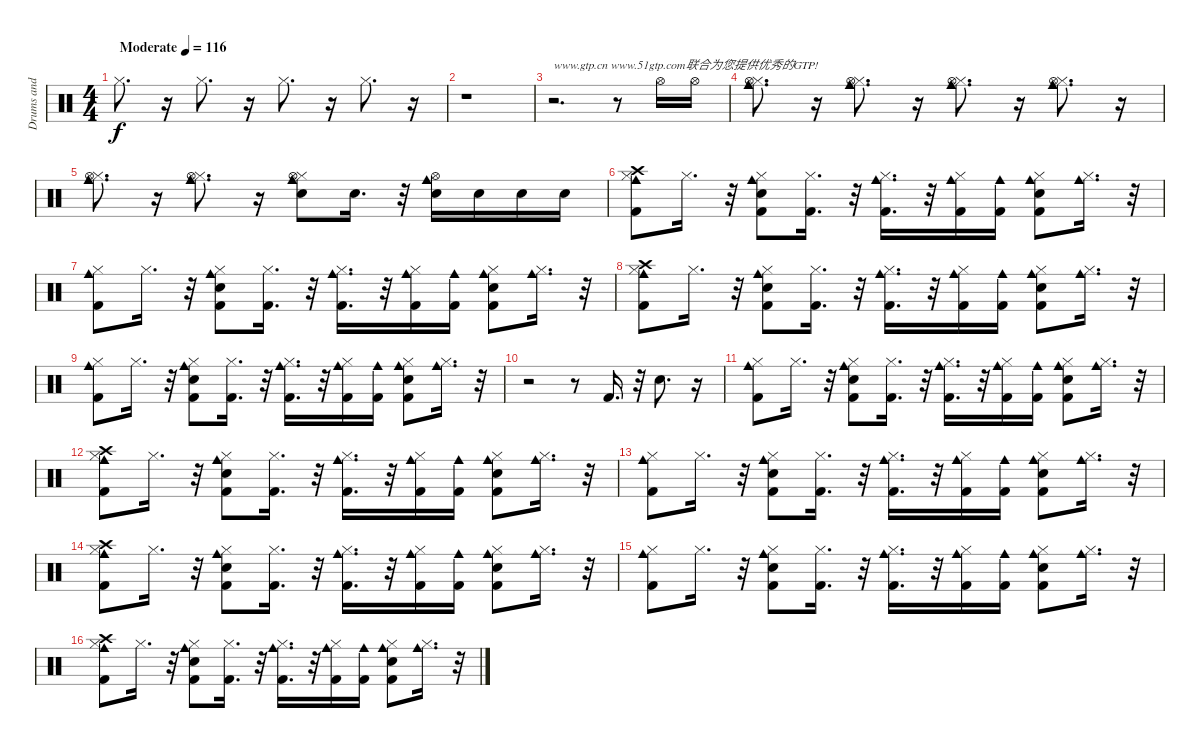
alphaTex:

\track ("Drums and Cowbell" "Drums and ") {instrument percussion}
\staff {score}
\articulation defaults
\ts (4 4)
\tempo (116 "Moderate")
\clef neutral
\ks c "Hi-Hat (closed)".8{d dy f}
r.16 "Hi-Hat (closed)".8{d} r.16 "Hi-Hat (closed)".8{d} r.16 "Hi-Hat (closed)".8{d} r.16 |
r.1 |
r.2{d txt "www.gtp.cn www.51gtp.com联合为您提供优秀的GTP!"} r.8 "Hi-Hat (open)".16 "Hi-Hat (open)".16 |
("Hi-Hat (closed)" "Cowbell medium (hit)" "Hi-Hat (open)").8{d} r.16 ("Hi-Hat (closed)" "Cowbell medium (hit)" "Hi-Hat (open)").8{d} r.16 ("Hi-Hat (closed)" "Cowbell medium (hit)" "Hi-Hat (open)").8{d} r.16 ("Hi-Hat (closed)" "Cowbell medium (hit)" "Hi-Hat (open)").8{d} r.16 |
("Hi-Hat (closed)" "Cowbell medium (hit)" "Hi-Hat (open)").8{d} r.16 ("Hi-Hat (closed)" "Cowbell medium (hit)" "Hi-Hat (open)").8{d} r.16 ("Hi-Hat (closed)" "Electric Snare (hit)" "Cowbell medium (hit)" "Hi-Hat (open)").8 "Electric Snare (hit)".16{d} r.32 ("Electric Snare (hit)" "Cowbell medium (hit)" "Hi-Hat (open)").16 "Electric Snare (hit)".16 "Electric Snare (hit)".16 "Electric Snare (hit)".16 |
("Kick (hit) 2" "Hi-Hat (closed)" "Crash high (hit)" "Cowbell medium (hit)").8 "Hi-Hat (closed)".16{d} r.32 ("Snare (hit) 2" "Kick (hit) 2" "Hi-Hat (closed)" "Cowbell medium (hit)").8 ("Kick (hit) 2" "Hi-Hat (closed)").16{d} r.32 ("Hi-Hat (closed)" "Kick (hit) 2" "Cowbell medium (hit)").16{d} r.32 ("Kick (hit) 2" "Hi-Hat (closed)" "Cowbell medium (hit)").16 ("Kick (hit) 2" "Cowbell medium (hit)").16 ("Kick (hit) 2" "Snare (hit) 2" "Hi-Hat (closed)" "Cowbell medium (hit)").8 ("Hi-Hat (closed)" "Cowbell medium (hit)").16{d} r.32 |
("Kick (hit) 2" "Hi-Hat (closed)" "Cowbell medium (hit)").8 "Hi-Hat (closed)".16{d} r.32 ("Snare (hit) 2" "Kick (hit) 2" "Hi-Hat (closed)" "Cowbell medium (hit)").8 ("Kick (hit) 2" "Hi-Hat (closed)").16{d} r.32 ("Hi-Hat (closed)" "Kick (hit) 2" "Cowbell medium (hit)").16{d} r.32 ("Kick (hit) 2" "Hi-Hat (closed)" "Cowbell medium (hit)").16 ("Kick (hit) 2" "Cowbell medium (hit)").16 ("Kick (hit) 2" "Snare (hit) 2" "Hi-Hat (closed)" "Cowbell medium (hit)").8 ("Hi-Hat (closed)" "Cowbell medium (hit)").16{d} r.32 |
("Kick (hit) 2" "Hi-Hat (closed)" "Cowbell medium (hit)" "Crash high (hit)").8 "Hi-Hat (closed)".16{d} r.32 ("Snare (hit) 2" "Kick (hit) 2" "Hi-Hat (closed)" "Cowbell medium (hit)").8 ("Kick (hit) 2" "Hi-Hat (closed)").16{d} r.32 ("Hi-Hat (closed)" "Kick (hit) 2" "Cowbell medium (hit)").16{d} r.32 ("Kick (hit) 2" "Hi-Hat (closed)" "Cowbell medium (hit)").16 ("Kick (hit) 2" "Cowbell medium (hit)").16 ("Kick (hit) 2" "Snare (hit) 2" "Hi-Hat (closed)" "Cowbell medium (hit)").8 ("Hi-Hat (closed)" "Cowbell medium (hit)").16{d} r.32 |
("Kick (hit) 2" "Hi-Hat (closed)" "Cowbell medium (hit)").8 "Hi-Hat (closed)".16{d} r.32 ("Snare (hit) 2" "Kick (hit) 2" "Hi-Hat (closed)" "Cowbell medium (hit)").8 ("Kick (hit) 2" "Hi-Hat (closed)").16{d} r.32 ("Hi-Hat (closed)" "Kick (hit) 2" "Cowbell medium (hit)").16{d} r.32 ("Kick (hit) 2" "Hi-Hat (closed)" "Cowbell medium (hit)").16 ("Kick (hit) 2" "Cowbell medium (hit)").16 ("Kick (hit) 2" "Snare (hit) 2" "Hi-Hat (closed)" "Cowbell medium (hit)").8 ("Hi-Hat (closed)" "Cowbell medium (hit)").16{d} r.32 |
r.2 r.8 "Kick (hit) 2".16{d} r.32 "Electric Snare (hit)".8{d} r.16 |
("Kick (hit) 2" "Hi-Hat (closed)" "Cowbell medium (hit)").8 "Hi-Hat (closed)".16{d} r.32 ("Snare (hit) 2" "Kick (hit) 2" "Hi-Hat (closed)" "Cowbell medium (hit)").8 ("Kick (hit) 2" "Hi-Hat (closed)").16{d} r.32 ("Hi-Hat (closed)" "Kick (hit) 2" "Cowbell medium (hit)").16{d} r.32 ("Kick (hit) 2" "Hi-Hat (closed)" "Cowbell medium (hit)").16 ("Kick (hit) 2" "Cowbell medium (hit)").16 ("Kick (hit) 2" "Snare (hit) 2" "Hi-Hat (closed)" "Cowbell medium (hit)").8 ("Hi-Hat (closed)" "Cowbell medium (hit)").16{d} r.32 |
("Kick (hit) 2" "Hi-Hat (closed)" "Cowbell medium (hit)" "Crash high (hit)").8 "Hi-Hat (closed)".16{d} r.32 ("Snare (hit) 2" "Kick (hit) 2" "Hi-Hat (closed)" "Cowbell medium (hit)").8 ("Kick (hit) 2" "Hi-Hat (closed)").16{d} r.32 ("Hi-Hat (closed)" "Kick (hit) 2" "Cowbell medium (hit)").16{d} r.32 ("Kick (hit) 2" "Hi-Hat (closed)" "Cowbell medium (hit)").16 ("Kick (hit) 2" "Cowbell medium (hit)").16 ("Kick (hit) 2" "Snare (hit) 2" "Hi-Hat (closed)" "Cowbell medium (hit)").8 ("Hi-Hat (closed)" "Cowbell medium (hit)").16{d} r.32 |
("Kick (hit) 2" "Hi-Hat (closed)" "Cowbell medium (hit)").8 "Hi-Hat (closed)".16{d} r.32 ("Snare (hit) 2" "Kick (hit) 2" "Hi-Hat (closed)" "Cowbell medium (hit)").8 ("Kick (hit) 2" "Hi-Hat (closed)").16{d} r.32 ("Hi-Hat (closed)" "Kick (hit) 2" "Cowbell medium (hit)").16{d} r.32 ("Kick (hit) 2" "Hi-Hat (closed)" "Cowbell medium (hit)").16 ("Kick (hit) 2" "Cowbell medium (hit)").16 ("Kick (hit) 2" "Snare (hit) 2" "Hi-Hat (closed)" "Cowbell medium (hit)").8 ("Hi-Hat (closed)" "Cowbell medium (hit)").16{d} r.32 |
("Kick (hit) 2" "Hi-Hat (closed)" "Cowbell medium (hit)" "Crash high (hit)").8 "Hi-Hat (closed)".16{d} r.32 ("Snare (hit) 2" "Kick (hit) 2" "Hi-Hat (closed)" "Cowbell medium (hit)").8 ("Kick (hit) 2" "Hi-Hat (closed)").16{d} r.32 ("Hi-Hat (closed)" "Kick (hit) 2" "Cowbell medium (hit)").16{d} r.32 ("Kick (hit) 2" "Hi-Hat (closed)" "Cowbell medium (hit)").16 ("Kick (hit) 2" "Cowbell medium (hit)").16 ("Kick (hit) 2" "Snare (hit) 2" "Hi-Hat (closed)" "Cowbell medium (hit)").8 ("Hi-Hat (closed)" "Cowbell medium (hit)").16{d} r.32 |
("Kick (hit) 2" "Hi-Hat (closed)" "Cowbell medium (hit)").8 "Hi-Hat (closed)".16{d} r.32 ("Snare (hit) 2" "Kick (hit) 2" "Hi-Hat (closed)" "Cowbell medium (hit)").8 ("Kick (hit) 2" "Hi-Hat (closed)").16{d} r.32 ("Hi-Hat (closed)" "Kick (hit) 2" "Cowbell medium (hit)").16{d} r.32 ("Kick (hit) 2" "Hi-Hat (closed)" "Cowbell medium (hit)").16 ("Kick (hit) 2" "Cowbell medium (hit)").16 ("Kick (hit) 2" "Snare (hit) 2" "Hi-Hat (closed)" "Cowbell medium (hit)").8 ("Hi-Hat (closed)" "Cowbell medium (hit)").16{d} r.32 |
("Kick (hit) 2" "Hi-Hat (closed)" "Cowbell medium (hit)" "Crash high (hit)").8 "Hi-Hat (closed)".16{d} r.32 ("Snare (hit) 2" "Kick (hit) 2" "Hi-Hat (closed)" "Cowbell medium (hit)").8 ("Kick (hit) 2" "Hi-Hat (closed)").16{d} r.32 ("Hi-Hat (closed)" "Kick (hit) 2" "Cowbell medium (hit)").16{d} r.32 ("Kick (hit) 2" "Hi-Hat (closed)" "Cowbell medium (hit)").16 ("Kick (hit) 2" "Cowbell medium (hit)").16 ("Kick (hit) 2" "Snare (hit) 2" "Hi-Hat (closed)" "Cowbell medium (hit)").8 ("Hi-Hat (closed)" "Cowbell medium (hit)").16{d} r.32
